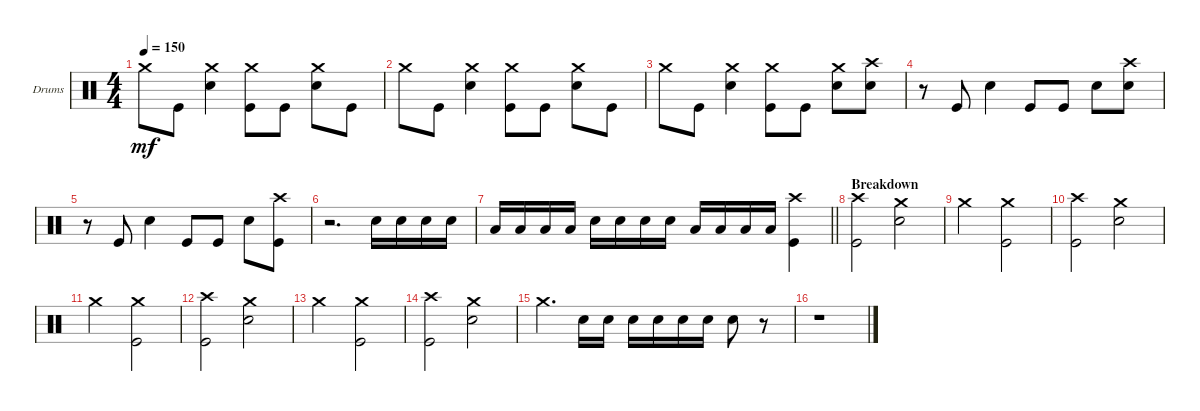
\defaultSystemsLayout 4
\bracketExtendMode groupsimilarinstruments
\firstSystemTrackNameOrientation horizontal
\otherSystemsTrackNameOrientation horizontal
\track ("Drums" "Drums") {instrument percussion}
\staff {score}
\articulation defaults
\ts (4 4)
\tempo 150
\clef neutral
\ks c "Crash medium (hit)".8{dy mf} "Kick (hit)".8
("Snare (hit) 2" "Crash medium (hit)").4 ("Kick (hit)" "Crash medium (hit)").8 "Kick (hit)".8 ("Snare (hit) 2" "Crash medium (hit)").8 "Kick (hit)".8 |
"Crash medium (hit)".8 "Kick (hit)".8 ("Snare (hit) 2" "Crash medium (hit)").4 ("Kick (hit)" "Crash medium (hit)").8 "Kick (hit)".8 ("Snare (hit) 2" "Crash medium (hit)").8 "Kick (hit)".8 |
"Crash medium (hit)".8 "Kick (hit)".8 ("Snare (hit) 2" "Crash medium (hit)").4 ("Kick (hit)" "Crash medium (hit)").8 "Kick (hit)".8 ("Snare (hit) 2" "Crash medium (hit)").8 ("Snare (hit) 2" "Crash high (hit)").8 |
r.8 "Kick (hit)".8 "Snare (hit) 2".4 "Kick (hit)".8 "Kick (hit)".8 "Snare (hit) 2".8 ("Snare (hit) 2" "Crash high (hit)").8 |
r.8 "Kick (hit)".8 "Snare (hit) 2".4 "Kick (hit)".8 "Kick (hit)".8 "Snare (hit) 2".8 ("Crash high (hit)" "Kick (hit)").8 |
r.2{d} "Snare (hit) 2".16 "Snare (hit) 2".16 "Snare (hit) 2".16 "Snare (hit) 2".16 |
\barLineRight lightlight "Low Tom (hit)".16 "Low Tom (hit)".16 "Low Tom (hit)".16 "Low Tom (hit)".16 "Snare (hit) 2".16 "Snare (hit) 2".16 "Snare (hit) 2".16 "Snare (hit) 2".16 "Low Tom (hit)".16 "Low Tom (hit)".16 "Low Tom (hit)".16 "Low Tom (hit)".16
("Kick (hit)" "Crash high (hit)").4 |
\section ("" "Breakdown")
("Kick (hit)" "Crash high (hit)").2 ("Snare (hit) 2" "Crash medium (hit)").2 |
"Crash medium (hit)".2 ("Crash medium (hit)" "Kick (hit)").2 |
("Kick (hit)" "Crash high (hit)").2 ("Snare (hit) 2" "Crash medium (hit)").2 |
"Crash medium (hit)".2 ("Crash medium (hit)" "Kick (hit)").2 |
("Kick (hit)" "Crash high (hit)").2 ("Snare (hit) 2" "Crash medium (hit)").2 |
"Crash medium (hit)".2 ("Crash medium (hit)" "Kick (hit)").2 |
("Kick (hit)" "Crash high (hit)").2 ("Snare (hit) 2" "Crash medium (hit)").2 |
"Crash medium (hit)".4{d} "Snare (hit) 2".16 "Snare (hit) 2".16 "Snare (hit) 2".16 "Snare (hit) 2".16 "Snare (hit) 2".16 "Snare (hit) 2".16 "Snare (hit) 2".8 r.8 |
r.1
